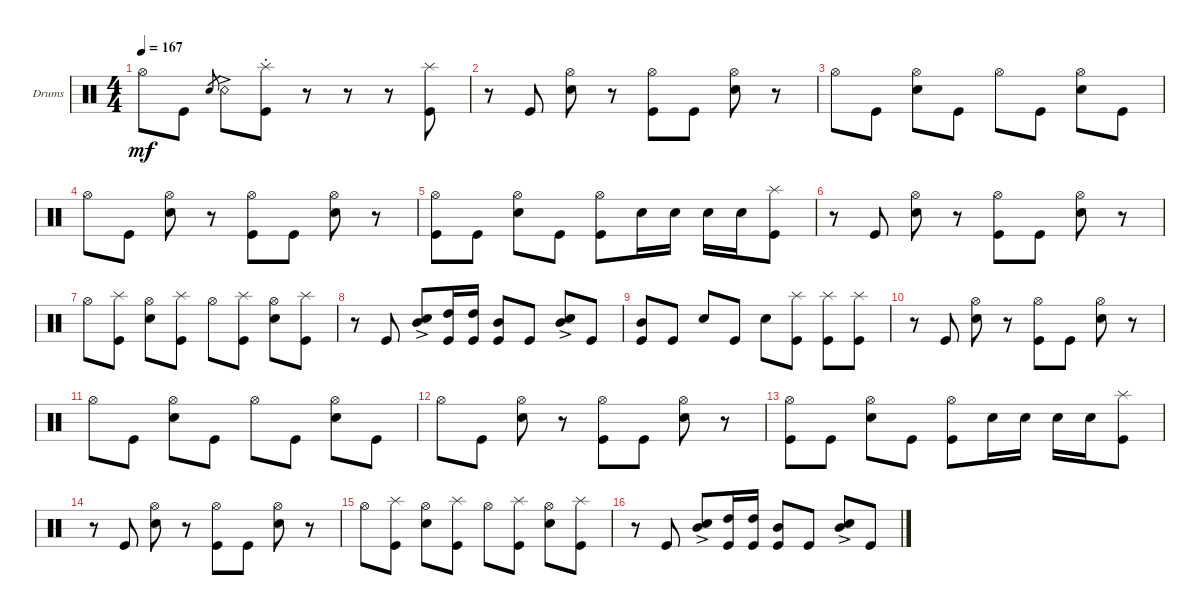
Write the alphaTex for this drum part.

\bracketExtendMode groupsimilarinstruments
\firstSystemTrackNameOrientation horizontal
\otherSystemsTrackNameOrientation horizontal
\track ("Drumkit" "Drums") {instrument percussion}
\staff {score}
\articulation defaults
\ts (4 4)
\tempo 167
\clef neutral
\ks c "Hi-Hat (open)".8{dy mf} "Kick (hit)".8 "Snare (hit) 2".8{gr} "Snare (rim shot)"{ac}.8
("Kick (hit)" "Splash (hit)"{st}).8 r.8 r.8 r.8 ("Kick (hit)" "Splash (hit)").8 |
r.8 "Kick (hit)".8 ("Snare (hit) 2" "Hi-Hat (open)").8 r.8 ("Kick (hit)" "Hi-Hat (open)").8 "Kick (hit)".8 ("Snare (hit) 2" "Hi-Hat (open)").8 r.8 |
"Hi-Hat (open)".8 "Kick (hit)".8 ("Snare (hit) 2" "Hi-Hat (open)").8 "Kick (hit)".8 "Hi-Hat (open)".8 "Kick (hit)".8 ("Snare (hit) 2" "Hi-Hat (open)").8 "Kick (hit)".8 |
"Hi-Hat (open)".8 "Kick (hit)".8 ("Snare (hit) 2" "Hi-Hat (open)").8 r.8 ("Kick (hit)" "Hi-Hat (open)").8 "Kick (hit)".8 ("Snare (hit) 2" "Hi-Hat (open)").8 r.8 |
("Kick (hit)" "Hi-Hat (open)").8 "Kick (hit)".8 ("Snare (hit) 2" "Hi-Hat (open)").8 "Kick (hit)".8 ("Kick (hit)" "Hi-Hat (open)").8 "Snare (hit) 2".16 "Snare (hit) 2".16 "Snare (hit) 2".16 "Snare (hit) 2".16 ("Kick (hit)" "Splash (hit)").8 |
r.8 "Kick (hit)".8 ("Snare (hit) 2" "Hi-Hat (open)").8 r.8 ("Kick (hit)" "Hi-Hat (open)").8 "Kick (hit)".8 ("Snare (hit) 2" "Hi-Hat (open)").8 r.8 |
"Hi-Hat (open)".8 ("Kick (hit)" "Splash (hit)").8 ("Snare (hit) 2" "Hi-Hat (open)").8 ("Kick (hit)" "Splash (hit)").8 "Hi-Hat (open)".8 ("Kick (hit)" "Splash (hit)").8 ("Snare (hit) 2" "Hi-Hat (open)").8 ("Kick (hit)" "Splash (hit)").8 |
r.8 "Kick (hit)".8 ("Snare (hit) 2"{ac} "Mid Tom (hit)").8 ("Kick (hit)" "High Tom (hit)").16 ("Kick (hit)" "High Tom (hit)").16 ("Kick (hit)" "Mid Tom (hit)").8 "Kick (hit)".8 ("Snare (hit) 2"{ac} "Mid Tom (hit)").8 "Kick (hit)".8 |
("Kick (hit)" "Mid Tom (hit)").8 "Kick (hit)".8 "Snare (hit) 2".8 "Kick (hit)".8 "Snare (hit) 2".8 ("Kick (hit)" "Splash (hit)").8 ("Kick (hit)" "Splash (hit)").8 ("Kick (hit)" "Splash (hit)").8 |
r.8 "Kick (hit)".8 ("Snare (hit) 2" "Hi-Hat (open)").8 r.8 ("Kick (hit)" "Hi-Hat (open)").8 "Kick (hit)".8 ("Snare (hit) 2" "Hi-Hat (open)").8 r.8 |
"Hi-Hat (open)".8 "Kick (hit)".8 ("Snare (hit) 2" "Hi-Hat (open)").8 "Kick (hit)".8 "Hi-Hat (open)".8 "Kick (hit)".8 ("Snare (hit) 2" "Hi-Hat (open)").8 "Kick (hit)".8 |
"Hi-Hat (open)".8 "Kick (hit)".8 ("Snare (hit) 2" "Hi-Hat (open)").8 r.8 ("Kick (hit)" "Hi-Hat (open)").8 "Kick (hit)".8 ("Snare (hit) 2" "Hi-Hat (open)").8 r.8 |
("Kick (hit)" "Hi-Hat (open)").8 "Kick (hit)".8 ("Snare (hit) 2" "Hi-Hat (open)").8 "Kick (hit)".8 ("Kick (hit)" "Hi-Hat (open)").8 "Snare (hit) 2".16 "Snare (hit) 2".16 "Snare (hit) 2".16 "Snare (hit) 2".16 ("Kick (hit)" "Splash (hit)").8 |
r.8 "Kick (hit)".8 ("Snare (hit) 2" "Hi-Hat (open)").8 r.8 ("Kick (hit)" "Hi-Hat (open)").8 "Kick (hit)".8 ("Snare (hit) 2" "Hi-Hat (open)").8 r.8 |
"Hi-Hat (open)".8 ("Kick (hit)" "Splash (hit)").8 ("Snare (hit) 2" "Hi-Hat (open)").8 ("Kick (hit)" "Splash (hit)").8 "Hi-Hat (open)".8 ("Kick (hit)" "Splash (hit)").8 ("Snare (hit) 2" "Hi-Hat (open)").8 ("Kick (hit)" "Splash (hit)").8 |
r.8 "Kick (hit)".8 ("Snare (hit) 2"{ac} "Mid Tom (hit)").8 ("Kick (hit)" "High Tom (hit)").16 ("Kick (hit)" "High Tom (hit)").16 ("Kick (hit)" "Mid Tom (hit)").8 "Kick (hit)".8 ("Snare (hit) 2"{ac} "Mid Tom (hit)").8 "Kick (hit)".8
